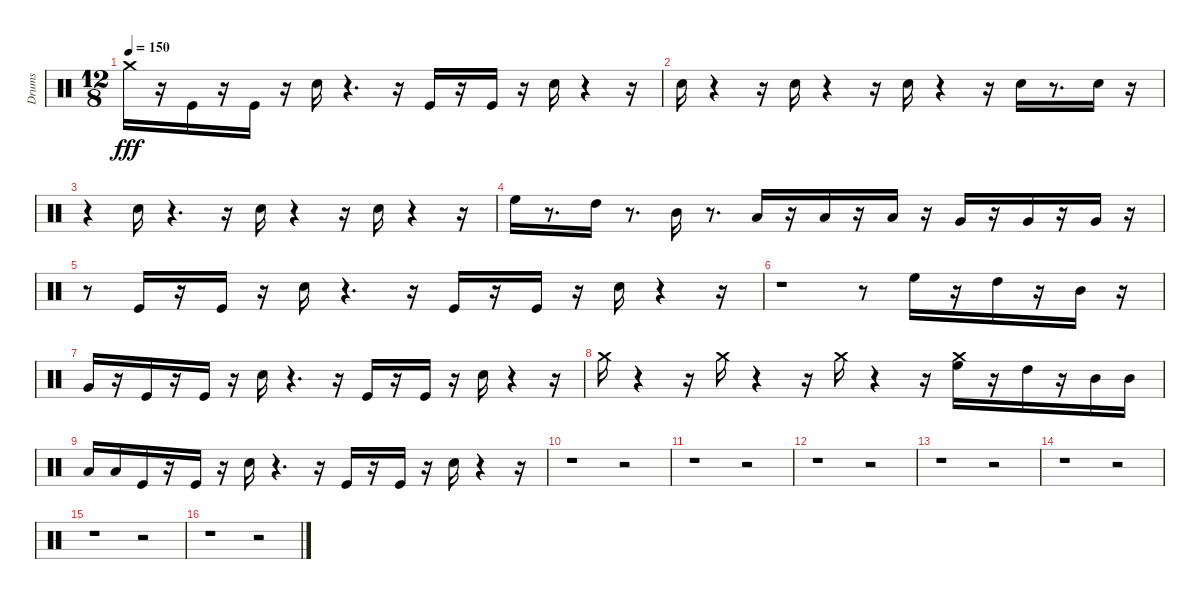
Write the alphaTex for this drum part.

\track ("Drums" "Drums") {instrument percussion}
\staff {score}
\articulation defaults
\ts (12 8)
\tempo 150
\clef neutral
\ks c "Crash medium (hit)".16{dy fff}
r.16 "Kick (hit)".16 r.16 "Kick (hit)".16 r.16 "Electric Snare (hit)".16 r.4{d} r.16 "Kick (hit)".16 r.16 "Kick (hit)".16 r.16 "Electric Snare (hit)".16 r.4 r.16 |
"Electric Snare (hit)".16 r.4 r.16 "Electric Snare (hit)".16 r.4 r.16 "Electric Snare (hit)".16 r.4 r.16 "Electric Snare (hit)".16 r.8{d} "Electric Snare (hit)".16 r.16 |
r.4 "Electric Snare (hit)".16 r.4{d} r.16 "Electric Snare (hit)".16 r.4 r.16 "Electric Snare (hit)".16 r.4 r.16 |
"High Floor Tom (hit)".16 r.8{d} "High Tom (hit)".16 r.8{d} "Mid Tom (hit)".16 r.8{d} "Low Tom (hit)".16 r.16 "Low Tom (hit)".16 r.16 "Low Tom (hit)".16 r.16 "Very Low Tom (hit)".16 r.16 "Very Low Tom (hit)".16 r.16 "Very Low Tom (hit)".16 r.16 |
r.8 "Kick (hit)".16 r.16 "Kick (hit)".16 r.16 "Electric Snare (hit)".16 r.4{d} r.16 "Kick (hit)".16 r.16 "Kick (hit)".16 r.16 "Electric Snare (hit)".16 r.4 r.16 |
r.1 r.8 "High Floor Tom (hit)".16 r.16 "High Tom (hit)".16 r.16 "Mid Tom (hit)".16 r.16 |
"Very Low Tom (hit)".16 r.16 "Kick (hit)".16 r.16 "Kick (hit)".16 r.16 "Electric Snare (hit)".16 r.4{d} r.16 "Kick (hit)".16 r.16 "Kick (hit)".16 r.16 "Electric Snare (hit)".16 r.4 r.16 |
"Crash medium (hit)".16 r.4 r.16 "Crash medium (hit)".16 r.4 r.16 "Crash medium (hit)".16 r.4 r.16 ("High Floor Tom (hit)" "Crash medium (hit)").16 r.16 "High Tom (hit)".16 r.16 "Mid Tom (hit)".16 "Mid Tom (hit)".16 |
"Low Tom (hit)".16 "Low Tom (hit)".16 "Kick (hit)".16 r.16 "Kick (hit)".16 r.16 "Electric Snare (hit)".16 r.4{d} r.16 "Kick (hit)".16 r.16 "Kick (hit)".16 r.16 "Electric Snare (hit)".16 r.4 r.16 |
r.1 r.2 |
r.1 r.2 |
r.1 r.2 |
r.1 r.2 |
r.1 r.2 |
r.1 r.2 |
r.1 r.2
